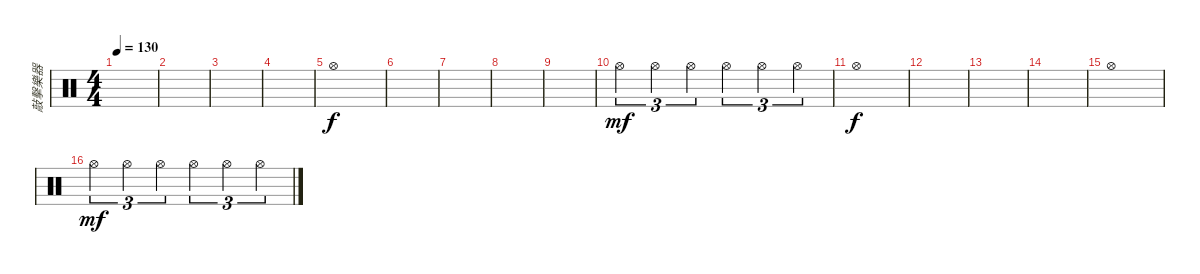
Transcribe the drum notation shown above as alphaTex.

\track ("敲擊樂器" "敲擊樂器") {instrument percussion}
\staff {score}
\articulation defaults
\ts (4 4)
\tempo 130
\clef neutral
\ks c
|
|
|
|
"Hi-Hat (open)".1 |
|
|
|
|
"Hi-Hat (open)".4{tu (3 2) dy mf} "Hi-Hat (open)".4{tu (3 2)} "Hi-Hat (open)".4{tu (3 2)} "Hi-Hat (open)".4{tu (3 2)} "Hi-Hat (open)".4{tu (3 2)} "Hi-Hat (open)".4{tu (3 2)} |
"Hi-Hat (open)".1{dy f} |
|
|
|
"Hi-Hat (open)".1 |
"Hi-Hat (open)".4{tu (3 2) dy mf} "Hi-Hat (open)".4{tu (3 2)} "Hi-Hat (open)".4{tu (3 2)} "Hi-Hat (open)".4{tu (3 2)} "Hi-Hat (open)".4{tu (3 2)} "Hi-Hat (open)".4{tu (3 2)}
